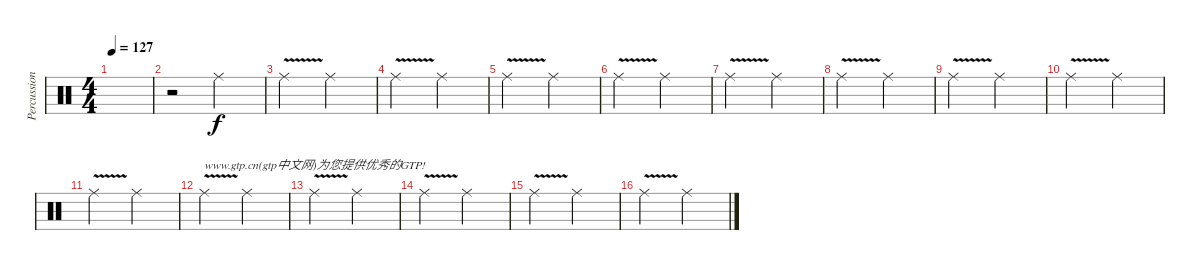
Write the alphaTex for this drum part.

\track ("Percussion" "Percussion") {instrument percussion}
\staff {score}
\articulation defaults
\ts (4 4)
\tempo 127
\clef neutral
\ks c
|
r.2 "Ride (middle)".2 |
"Ride (middle)"{v}.2 "Ride (middle)".2 |
"Ride (middle)"{v}.2 "Ride (middle)".2 |
"Ride (middle)"{v}.2 "Ride (middle)".2 |
"Ride (middle)"{v}.2 "Ride (middle)".2 |
"Ride (middle)"{v}.2 "Ride (middle)".2 |
"Ride (middle)"{v}.2 "Ride (middle)".2 |
"Ride (middle)"{v}.2 "Ride (middle)".2 |
"Ride (middle)"{v}.2 "Ride (middle)".2 |
"Ride (middle)"{v}.2 "Ride (middle)".2 |
"Ride (middle)"{v}.2{txt "www.gtp.cn(gtp中文网)为您提供优秀的GTP!"} "Ride (middle)".2 |
"Ride (middle)"{v}.2 "Ride (middle)".2 |
"Ride (middle)"{v}.2 "Ride (middle)".2 |
"Ride (middle)"{v}.2 "Ride (middle)".2 |
"Ride (middle)"{v}.2 "Ride (middle)".2
